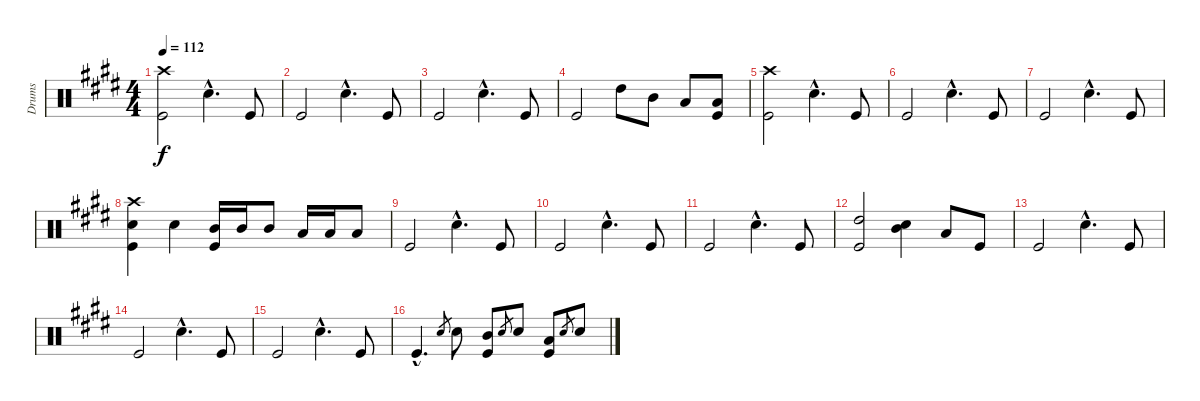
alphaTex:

\track ("Drums" "Drums") {instrument percussion}
\staff {score}
\articulation defaults
\ts (4 4)
\tempo 112
\clef neutral
\ks e
("Crash high (hit)" "Kick (hit)").2{dy f} "Snare (hit) 2"{hac}.4{d} "Kick (hit)".8 |
"Kick (hit)".2 "Snare (hit) 2"{hac}.4{d} "Kick (hit)".8 |
"Kick (hit)".2 "Snare (hit) 2"{hac}.4{d} "Kick (hit)".8 |
"Kick (hit)".2 "High Tom (hit)".8 "Mid Tom (hit)".8 "Low Tom (hit)".8 ("Low Floor Tom (hit)" "Kick (hit)").8 |
("Crash high (hit)" "Kick (hit)").2 "Snare (hit) 2"{hac}.4{d} "Kick (hit)".8 |
"Kick (hit)".2 "Snare (hit) 2"{hac}.4{d} "Kick (hit)".8 |
"Kick (hit)".2 "Snare (hit) 2"{hac}.4{d} "Kick (hit)".8 |
("Crash high (hit)" "Snare (hit) 2" "Kick (hit)").4 "Snare (hit) 2".4 ("Mid Tom (hit)" "Kick (hit)").16 "Mid Tom (hit)".16 "Mid Tom (hit)".8 "Low Tom (hit)".16 "Low Tom (hit)".16 "Low Tom (hit)".8 |
"Kick (hit)".2 "Snare (hit) 2"{hac}.4{d} "Kick (hit)".8 |
"Kick (hit)".2 "Snare (hit) 2"{hac}.4{d} "Kick (hit)".8 |
"Kick (hit)".2 "Snare (hit) 2"{hac}.4{d} "Kick (hit)".8 |
("High Tom (hit)" "Kick (hit)").2 ("Mid Tom (hit)" "Snare (hit) 2").4 "Low Tom (hit)".8 "Kick (hit)".8 |
"Kick (hit)".2 "Snare (hit) 2"{hac}.4{d} "Kick (hit)".8 |
"Kick (hit)".2 "Snare (hit) 2"{hac}.4{d} "Kick (hit)".8 |
"Kick (hit)".2 "Snare (hit) 2"{hac}.4{d} "Kick (hit)".8 |
"Kick (hit)"{hac}.4{d} "Snare (hit) 2".8{gr} "Snare (hit) 2".8 ("Mid Tom (hit)" "Kick (hit)").8 "Snare (hit) 2".8{gr} "Snare (hit) 2".8 ("Low Tom (hit)" "Kick (hit)").8 "Snare (hit) 2".8{gr} "Snare (hit) 2".8
